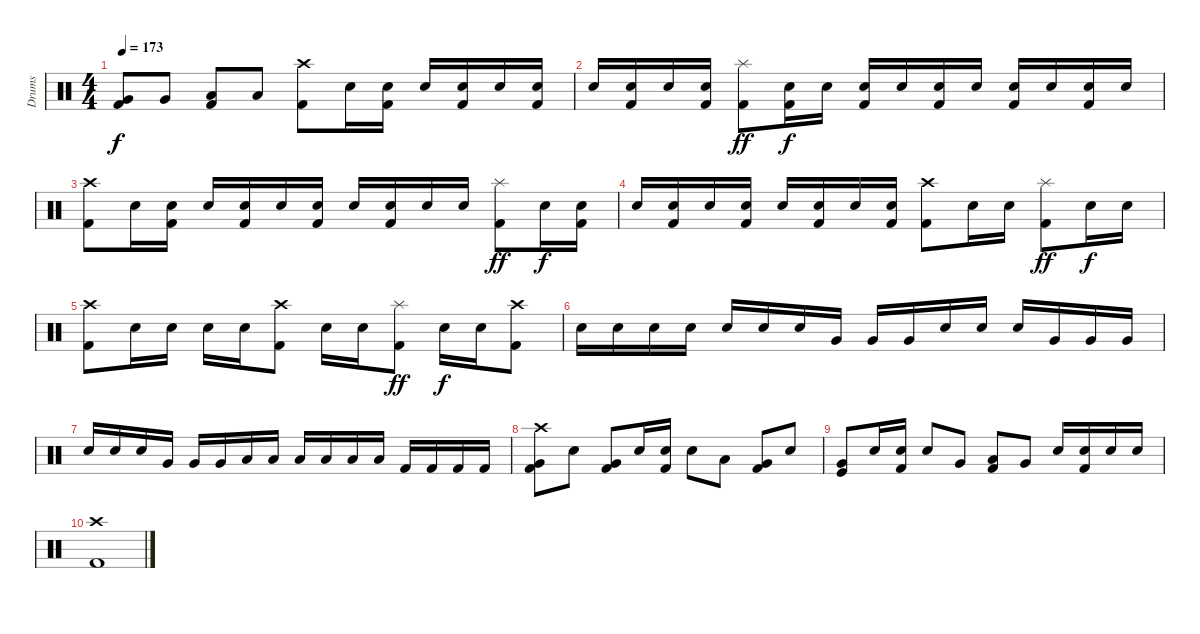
\track ("Drums" "Drums") {instrument percussion}
\staff {score}
\articulation defaults
\ts (4 4)
\tempo 173
\clef neutral
\ks c
("Very Low Tom (hit)" "Kick (hit) 2").8{dy f} "Very Low Tom (hit)".8 ("Low Tom (hit)" "Kick (hit) 2").8 "Low Tom (hit)".8 ("Crash high (hit)" "Kick (hit) 2").8 "Electric Snare (hit)".16 ("Electric Snare (hit)" "Kick (hit) 2").16 "Electric Snare (hit)".16 ("Electric Snare (hit)" "Kick (hit) 2").16 "Electric Snare (hit)".16 ("Electric Snare (hit)" "Kick (hit) 2").16 |
"Electric Snare (hit)".16 ("Electric Snare (hit)" "Kick (hit) 2").16 "Electric Snare (hit)".16 ("Electric Snare (hit)" "Kick (hit) 2").16 ("Splash (hit)" "Kick (hit) 2").8{dy ff} ("Electric Snare (hit)" "Kick (hit) 2").16{dy f} "Electric Snare (hit)".16 ("Electric Snare (hit)" "Kick (hit) 2").16 "Electric Snare (hit)".16 ("Electric Snare (hit)" "Kick (hit) 2").16 "Electric Snare (hit)".16 ("Electric Snare (hit)" "Kick (hit) 2").16 "Electric Snare (hit)".16 ("Electric Snare (hit)" "Kick (hit) 2").16 "Electric Snare (hit)".16 |
("Crash high (hit)" "Kick (hit) 2").8 "Electric Snare (hit)".16 ("Electric Snare (hit)" "Kick (hit) 2").16 "Electric Snare (hit)".16 ("Electric Snare (hit)" "Kick (hit) 2").16 "Electric Snare (hit)".16 ("Electric Snare (hit)" "Kick (hit) 2").16 "Electric Snare (hit)".16 ("Electric Snare (hit)" "Kick (hit) 2").16 "Electric Snare (hit)".16 "Electric Snare (hit)".16 ("Splash (hit)" "Kick (hit) 2").8{dy ff} "Electric Snare (hit)".16{dy f} ("Electric Snare (hit)" "Kick (hit) 2").16 |
"Electric Snare (hit)".16 ("Electric Snare (hit)" "Kick (hit) 2").16 "Electric Snare (hit)".16 ("Electric Snare (hit)" "Kick (hit) 2").16 "Electric Snare (hit)".16 ("Electric Snare (hit)" "Kick (hit) 2").16 "Electric Snare (hit)".16 ("Electric Snare (hit)" "Kick (hit) 2").16 ("Crash high (hit)" "Kick (hit) 2").8 "Electric Snare (hit)".16 "Electric Snare (hit)".16 ("Splash (hit)" "Kick (hit) 2").8{dy ff} "Electric Snare (hit)".16{dy f} "Electric Snare (hit)".16 |
("Crash high (hit)" "Kick (hit) 2").8 "Electric Snare (hit)".16 "Electric Snare (hit)".16 "Electric Snare (hit)".16 "Electric Snare (hit)".16 ("Crash high (hit)" "Kick (hit) 2").8 "Electric Snare (hit)".16 "Electric Snare (hit)".16 ("Splash (hit)" "Kick (hit) 2").8{dy ff} "Electric Snare (hit)".16{dy f} "Electric Snare (hit)".16 ("Crash high (hit)" "Kick (hit) 2").8 |
"Electric Snare (hit)".16 "Electric Snare (hit)".16 "Electric Snare (hit)".16 "Electric Snare (hit)".16 "Electric Snare (hit)".16 "Electric Snare (hit)".16 "Electric Snare (hit)".16 "Very Low Tom (hit)".16 "Very Low Tom (hit)".16 "Very Low Tom (hit)".16 "Electric Snare (hit)".16 "Electric Snare (hit)".16 "Electric Snare (hit)".16 "Very Low Tom (hit)".16 "Very Low Tom (hit)".16 "Very Low Tom (hit)".16 |
"Electric Snare (hit)".16 "Electric Snare (hit)".16 "Electric Snare (hit)".16 "Very Low Tom (hit)".16 "Very Low Tom (hit)".16 "Very Low Tom (hit)".16 "Low Tom (hit)".16 "Low Tom (hit)".16 "Low Floor Tom (hit)".16 "Low Floor Tom (hit)".16 "Low Floor Tom (hit)".16 "Low Floor Tom (hit)".16 "Kick (hit) 2".16 "Kick (hit) 2".16 "Kick (hit) 2".16 "Kick (hit) 2".16 |
("Crash high (hit)" "Very Low Tom (hit)" "Kick (hit) 2").8 "Electric Snare (hit)".8 ("Very Low Tom (hit)" "Kick (hit) 2").8 "Electric Snare (hit)".16 ("Electric Snare (hit)" "Kick (hit) 2").16 "Electric Snare (hit)".8 "Low Tom (hit)".8 ("Very Low Tom (hit)" "Kick (hit) 2").8 "Electric Snare (hit)".8 |
("Very Low Tom (hit)" "Kick (hit)").8 "Electric Snare (hit)".16 ("Electric Snare (hit)" "Kick (hit) 2").16 "Electric Snare (hit)".8 "Very Low Tom (hit)".8 ("Low Tom (hit)" "Kick (hit) 2").8 "Very Low Tom (hit)".8 "Electric Snare (hit)".16 ("Electric Snare (hit)" "Kick (hit) 2").16 "Electric Snare (hit)".16 "Electric Snare (hit)".16 |
("Crash high (hit)" "Kick (hit) 2").1
